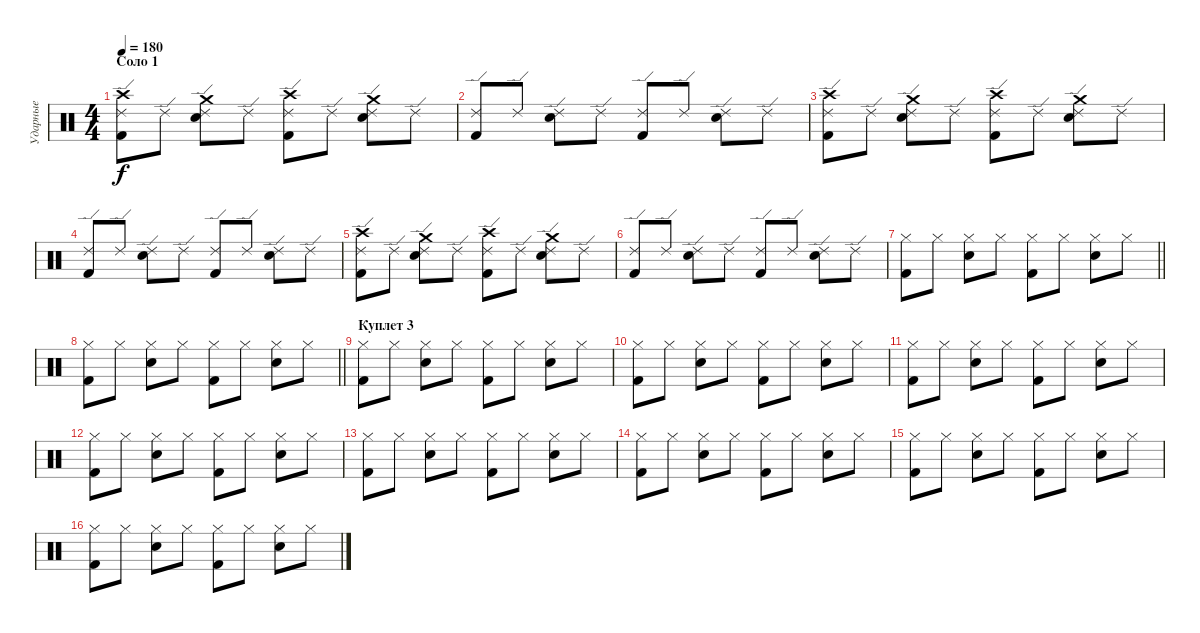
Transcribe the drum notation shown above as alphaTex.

\track ("Ударные" "Ударные") {instrument percussion}
\staff {score}
\articulation defaults
\ts (4 4)
\section ("" "Соло 1")
\tempo 180
\clef neutral
\ks c
("Crash high (hit)" "Ride (edge) 2" "Kick (hit) 2").8{dy f} "Ride (edge) 2".8 ("Crash medium (hit)" "Ride (edge) 2" "Electric Snare (hit)").8 "Ride (edge) 2".8 ("Crash high (hit)" "Ride (edge) 2" "Kick (hit) 2").8 "Ride (edge) 2".8 ("Crash medium (hit)" "Ride (edge) 2" "Electric Snare (hit)").8 "Ride (edge) 2".8 |
("Ride (edge) 2" "Kick (hit) 2").8 "Ride (edge) 2".8 ("Ride (edge) 2" "Electric Snare (hit)").8 "Ride (edge) 2".8 ("Ride (edge) 2" "Kick (hit) 2").8 "Ride (edge) 2".8 ("Ride (edge) 2" "Electric Snare (hit)").8 "Ride (edge) 2".8 |
("Crash high (hit)" "Ride (edge) 2" "Kick (hit) 2").8 "Ride (edge) 2".8 ("Crash medium (hit)" "Ride (edge) 2" "Electric Snare (hit)").8 "Ride (edge) 2".8 ("Crash high (hit)" "Ride (edge) 2" "Kick (hit) 2").8 "Ride (edge) 2".8 ("Crash medium (hit)" "Ride (edge) 2" "Electric Snare (hit)").8 "Ride (edge) 2".8 |
("Ride (edge) 2" "Kick (hit) 2").8 "Ride (edge) 2".8 ("Ride (edge) 2" "Electric Snare (hit)").8 "Ride (edge) 2".8 ("Ride (edge) 2" "Kick (hit) 2").8 "Ride (edge) 2".8 ("Ride (edge) 2" "Electric Snare (hit)").8 "Ride (edge) 2".8 |
("Crash high (hit)" "Ride (edge) 2" "Kick (hit) 2").8 "Ride (edge) 2".8 ("Crash medium (hit)" "Ride (edge) 2" "Electric Snare (hit)").8 "Ride (edge) 2".8 ("Crash high (hit)" "Ride (edge) 2" "Kick (hit) 2").8 "Ride (edge) 2".8 ("Crash medium (hit)" "Ride (edge) 2" "Electric Snare (hit)").8 "Ride (edge) 2".8 |
("Ride (edge) 2" "Kick (hit) 2").8 "Ride (edge) 2".8 ("Ride (edge) 2" "Electric Snare (hit)").8 "Ride (edge) 2".8 ("Ride (edge) 2" "Kick (hit) 2").8 "Ride (edge) 2".8 ("Ride (edge) 2" "Electric Snare (hit)").8 "Ride (edge) 2".8 |
\barLineRight lightlight
("Hi-Hat (closed)" "Kick (hit) 2").8 "Hi-Hat (closed)".8 ("Hi-Hat (closed)" "Electric Snare (hit)").8 "Hi-Hat (closed)".8 ("Hi-Hat (closed)" "Kick (hit) 2").8 "Hi-Hat (closed)".8 ("Hi-Hat (closed)" "Electric Snare (hit)").8 "Hi-Hat (closed)".8 |
\barLineRight lightlight
("Hi-Hat (closed)" "Kick (hit) 2").8 "Hi-Hat (closed)".8 ("Hi-Hat (closed)" "Electric Snare (hit)").8 "Hi-Hat (closed)".8 ("Hi-Hat (closed)" "Kick (hit) 2").8 "Hi-Hat (closed)".8 ("Hi-Hat (closed)" "Electric Snare (hit)").8 "Hi-Hat (closed)".8 |
\section ("" "Куплет 3")
("Hi-Hat (closed)" "Kick (hit) 2").8 "Hi-Hat (closed)".8 ("Hi-Hat (closed)" "Electric Snare (hit)").8 "Hi-Hat (closed)".8 ("Hi-Hat (closed)" "Kick (hit) 2").8 "Hi-Hat (closed)".8 ("Hi-Hat (closed)" "Electric Snare (hit)").8 "Hi-Hat (closed)".8 |
("Hi-Hat (closed)" "Kick (hit) 2").8 "Hi-Hat (closed)".8 ("Hi-Hat (closed)" "Electric Snare (hit)").8 "Hi-Hat (closed)".8 ("Hi-Hat (closed)" "Kick (hit) 2").8 "Hi-Hat (closed)".8 ("Hi-Hat (closed)" "Electric Snare (hit)").8 "Hi-Hat (closed)".8 |
("Hi-Hat (closed)" "Kick (hit) 2").8 "Hi-Hat (closed)".8 ("Hi-Hat (closed)" "Electric Snare (hit)").8 "Hi-Hat (closed)".8 ("Hi-Hat (closed)" "Kick (hit) 2").8 "Hi-Hat (closed)".8 ("Hi-Hat (closed)" "Electric Snare (hit)").8 "Hi-Hat (closed)".8 |
("Hi-Hat (closed)" "Kick (hit) 2").8 "Hi-Hat (closed)".8 ("Hi-Hat (closed)" "Electric Snare (hit)").8 "Hi-Hat (closed)".8 ("Hi-Hat (closed)" "Kick (hit) 2").8 "Hi-Hat (closed)".8 ("Hi-Hat (closed)" "Electric Snare (hit)").8 "Hi-Hat (closed)".8 |
("Hi-Hat (closed)" "Kick (hit) 2").8 "Hi-Hat (closed)".8 ("Hi-Hat (closed)" "Electric Snare (hit)").8 "Hi-Hat (closed)".8 ("Hi-Hat (closed)" "Kick (hit) 2").8 "Hi-Hat (closed)".8 ("Hi-Hat (closed)" "Electric Snare (hit)").8 "Hi-Hat (closed)".8 |
("Hi-Hat (closed)" "Kick (hit) 2").8 "Hi-Hat (closed)".8 ("Hi-Hat (closed)" "Electric Snare (hit)").8 "Hi-Hat (closed)".8 ("Hi-Hat (closed)" "Kick (hit) 2").8 "Hi-Hat (closed)".8 ("Hi-Hat (closed)" "Electric Snare (hit)").8 "Hi-Hat (closed)".8 |
("Hi-Hat (closed)" "Kick (hit) 2").8 "Hi-Hat (closed)".8 ("Hi-Hat (closed)" "Electric Snare (hit)").8 "Hi-Hat (closed)".8 ("Hi-Hat (closed)" "Kick (hit) 2").8 "Hi-Hat (closed)".8 ("Hi-Hat (closed)" "Electric Snare (hit)").8 "Hi-Hat (closed)".8 |
("Hi-Hat (closed)" "Kick (hit) 2").8 "Hi-Hat (closed)".8 ("Hi-Hat (closed)" "Electric Snare (hit)").8 "Hi-Hat (closed)".8 ("Hi-Hat (closed)" "Kick (hit) 2").8 "Hi-Hat (closed)".8 ("Hi-Hat (closed)" "Electric Snare (hit)").8 "Hi-Hat (closed)".8
